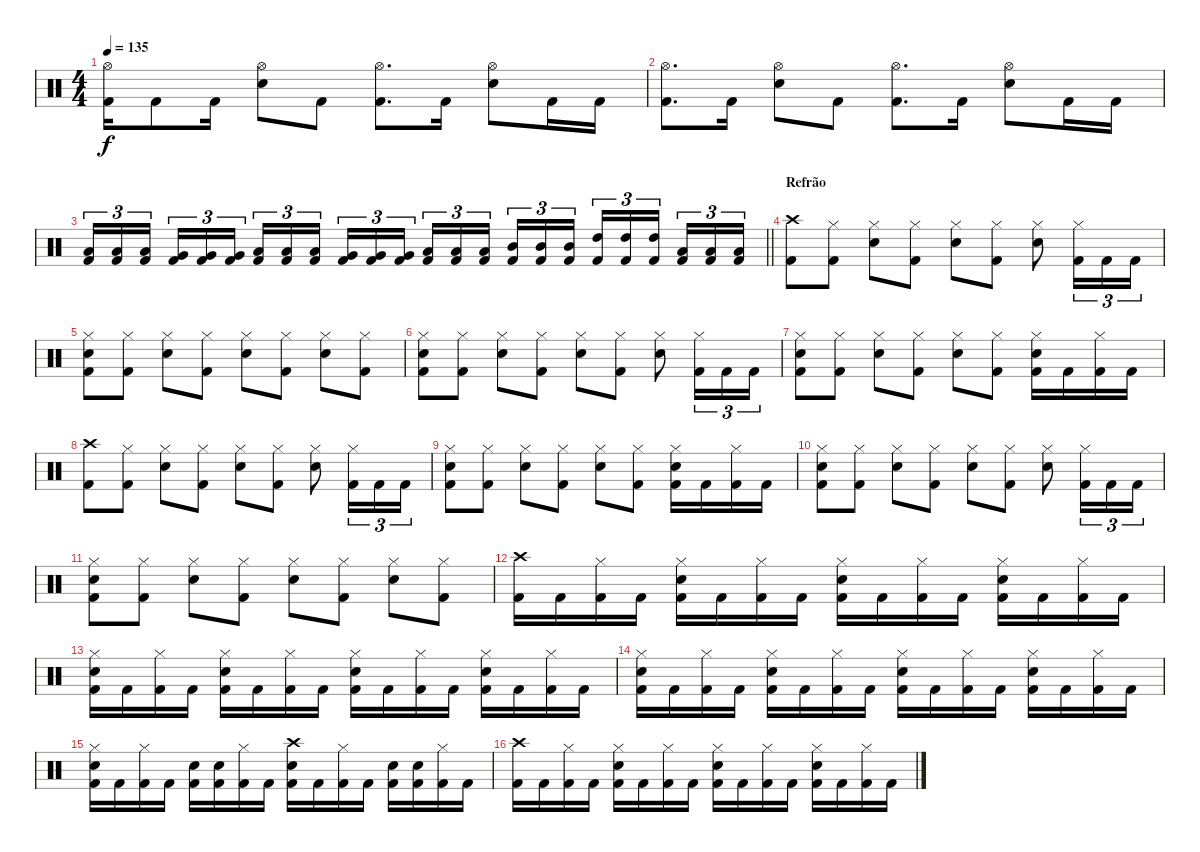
\track "" {instrument percussion}
\staff {score}
\articulation defaults
\ts (4 4)
\tempo 135
\clef neutral
\ks c
("Hi-Hat (open)" "Kick (hit) 2").16{dy f} "Kick (hit) 2".8 "Kick (hit) 2".16 ("Hi-Hat (open)" "Electric Snare (hit)").8 "Kick (hit) 2".8 ("Hi-Hat (open)" "Kick (hit) 2").8{d} "Kick (hit) 2".16 ("Hi-Hat (open)" "Electric Snare (hit)").8 "Kick (hit) 2".16 "Kick (hit) 2".16 |
("Hi-Hat (open)" "Kick (hit) 2").8{d} "Kick (hit) 2".16 ("Hi-Hat (open)" "Electric Snare (hit)").8 "Kick (hit) 2".8 ("Hi-Hat (open)" "Kick (hit) 2").8{d} "Kick (hit) 2".16 ("Hi-Hat (open)" "Electric Snare (hit)").8 "Kick (hit) 2".16 "Kick (hit) 2".16 |
\barLineRight lightlight
("Low Tom (hit)" "Kick (hit) 2").16{tu (3 2)} ("Low Tom (hit)" "Kick (hit) 2").16{tu (3 2)} ("Low Tom (hit)" "Kick (hit) 2").16{tu (3 2)} ("Very Low Tom (hit)" "Kick (hit) 2").16{tu (3 2)} ("Very Low Tom (hit)" "Kick (hit) 2").16{tu (3 2)} ("Very Low Tom (hit)" "Kick (hit) 2").16{tu (3 2)} ("Low Floor Tom (hit)" "Kick (hit) 2").16{tu (3 2)} ("Low Floor Tom (hit)" "Kick (hit) 2").16{tu (3 2)} ("Low Floor Tom (hit)" "Kick (hit) 2").16{tu (3 2)} ("Very Low Tom (hit)" "Kick (hit) 2").16{tu (3 2)} ("Very Low Tom (hit)" "Kick (hit) 2").16{tu (3 2)} ("Very Low Tom (hit)" "Kick (hit) 2").16{tu (3 2)} ("Low Tom (hit)" "Kick (hit) 2").16{tu (3 2)} ("Low Tom (hit)" "Kick (hit) 2").16{tu (3 2)} ("Low Tom (hit)" "Kick (hit) 2").16{tu (3 2)} ("Mid Tom (hit)" "Kick (hit) 2").16{tu (3 2)} ("Mid Tom (hit)" "Kick (hit) 2").16{tu (3 2)} ("Mid Tom (hit)" "Kick (hit) 2").16{tu (3 2)} ("High Tom (hit)" "Kick (hit) 2").16{tu (3 2)} ("High Tom (hit)" "Kick (hit) 2").16{tu (3 2)} ("High Tom (hit)" "Kick (hit) 2").16{tu (3 2)} ("Low Tom (hit)" "Kick (hit) 2").16{tu (3 2)} ("Low Tom (hit)" "Kick (hit) 2").16{tu (3 2)} ("Low Tom (hit)" "Kick (hit) 2").16{tu (3 2)} |
\section ("" "Refrão")
("Crash high (hit)" "Kick (hit) 2").8 ("Hi-Hat (closed)" "Kick (hit) 2").8 ("Hi-Hat (closed)" "Electric Snare (hit)").8 ("Hi-Hat (closed)" "Kick (hit) 2").8 ("Hi-Hat (closed)" "Electric Snare (hit)").8 ("Hi-Hat (closed)" "Kick (hit) 2").8 ("Hi-Hat (closed)" "Electric Snare (hit)").8 ("Hi-Hat (closed)" "Kick (hit) 2").16{tu (3 2)} "Kick (hit) 2".16{tu (3 2)} "Kick (hit) 2".16{tu (3 2)} |
("Hi-Hat (closed)" "Electric Snare (hit)" "Kick (hit) 2").8 ("Hi-Hat (closed)" "Kick (hit) 2").8 ("Hi-Hat (closed)" "Electric Snare (hit)").8 ("Hi-Hat (closed)" "Kick (hit) 2").8 ("Hi-Hat (closed)" "Electric Snare (hit)").8 ("Hi-Hat (closed)" "Kick (hit) 2").8 ("Hi-Hat (closed)" "Electric Snare (hit)").8 ("Hi-Hat (closed)" "Kick (hit) 2").8 |
("Hi-Hat (closed)" "Electric Snare (hit)" "Kick (hit) 2").8 ("Hi-Hat (closed)" "Kick (hit) 2").8 ("Hi-Hat (closed)" "Electric Snare (hit)").8 ("Hi-Hat (closed)" "Kick (hit) 2").8 ("Hi-Hat (closed)" "Electric Snare (hit)").8 ("Hi-Hat (closed)" "Kick (hit) 2").8 ("Hi-Hat (closed)" "Electric Snare (hit)").8 ("Hi-Hat (closed)" "Kick (hit) 2").16{tu (3 2)} "Kick (hit) 2".16{tu (3 2)} "Kick (hit) 2".16{tu (3 2)} |
("Hi-Hat (closed)" "Electric Snare (hit)" "Kick (hit) 2").8 ("Hi-Hat (closed)" "Kick (hit) 2").8 ("Hi-Hat (closed)" "Electric Snare (hit)").8 ("Hi-Hat (closed)" "Kick (hit) 2").8 ("Hi-Hat (closed)" "Electric Snare (hit)").8 ("Hi-Hat (closed)" "Kick (hit) 2").8 ("Hi-Hat (closed)" "Electric Snare (hit)" "Kick (hit) 2").16 "Kick (hit) 2".16 ("Hi-Hat (closed)" "Kick (hit) 2").16 "Kick (hit) 2".16 |
("Crash high (hit)" "Kick (hit) 2").8 ("Hi-Hat (closed)" "Kick (hit) 2").8 ("Hi-Hat (closed)" "Electric Snare (hit)").8 ("Hi-Hat (closed)" "Kick (hit) 2").8 ("Hi-Hat (closed)" "Electric Snare (hit)").8 ("Hi-Hat (closed)" "Kick (hit) 2").8 ("Hi-Hat (closed)" "Electric Snare (hit)").8 ("Hi-Hat (closed)" "Kick (hit) 2").16{tu (3 2)} "Kick (hit) 2".16{tu (3 2)} "Kick (hit) 2".16{tu (3 2)} |
("Hi-Hat (closed)" "Electric Snare (hit)" "Kick (hit) 2").8 ("Hi-Hat (closed)" "Kick (hit) 2").8 ("Hi-Hat (closed)" "Electric Snare (hit)").8 ("Hi-Hat (closed)" "Kick (hit) 2").8 ("Hi-Hat (closed)" "Electric Snare (hit)").8 ("Hi-Hat (closed)" "Kick (hit) 2").8 ("Hi-Hat (closed)" "Electric Snare (hit)" "Kick (hit) 2").16 "Kick (hit) 2".16 ("Hi-Hat (closed)" "Kick (hit) 2").16 "Kick (hit) 2".16 |
("Hi-Hat (closed)" "Electric Snare (hit)" "Kick (hit) 2").8 ("Hi-Hat (closed)" "Kick (hit) 2").8 ("Hi-Hat (closed)" "Electric Snare (hit)").8 ("Hi-Hat (closed)" "Kick (hit) 2").8 ("Hi-Hat (closed)" "Electric Snare (hit)").8 ("Hi-Hat (closed)" "Kick (hit) 2").8 ("Hi-Hat (closed)" "Electric Snare (hit)").8 ("Hi-Hat (closed)" "Kick (hit) 2").16{tu (3 2)} "Kick (hit) 2".16{tu (3 2)} "Kick (hit) 2".16{tu (3 2)} |
("Hi-Hat (closed)" "Electric Snare (hit)" "Kick (hit) 2").8 ("Hi-Hat (closed)" "Kick (hit) 2").8 ("Hi-Hat (closed)" "Electric Snare (hit)").8 ("Hi-Hat (closed)" "Kick (hit) 2").8 ("Hi-Hat (closed)" "Electric Snare (hit)").8 ("Hi-Hat (closed)" "Kick (hit) 2").8 ("Hi-Hat (closed)" "Electric Snare (hit)").8 ("Hi-Hat (closed)" "Kick (hit) 2").8 |
("Crash high (hit)" "Kick (hit) 2").16 "Kick (hit) 2".16 ("Hi-Hat (closed)" "Kick (hit) 2").16 "Kick (hit) 2".16 ("Hi-Hat (closed)" "Electric Snare (hit)" "Kick (hit) 2").16 "Kick (hit) 2".16 ("Hi-Hat (closed)" "Kick (hit) 2").16 "Kick (hit) 2".16 ("Hi-Hat (closed)" "Electric Snare (hit)" "Kick (hit) 2").16 "Kick (hit) 2".16 ("Hi-Hat (closed)" "Kick (hit) 2").16 "Kick (hit) 2".16 ("Hi-Hat (closed)" "Electric Snare (hit)" "Kick (hit) 2").16 "Kick (hit) 2".16 ("Hi-Hat (closed)" "Kick (hit) 2").16 "Kick (hit) 2".16 |
("Hi-Hat (closed)" "Electric Snare (hit)" "Kick (hit) 2").16 "Kick (hit) 2".16 ("Hi-Hat (closed)" "Kick (hit) 2").16 "Kick (hit) 2".16 ("Hi-Hat (closed)" "Electric Snare (hit)" "Kick (hit) 2").16 "Kick (hit) 2".16 ("Hi-Hat (closed)" "Kick (hit) 2").16 "Kick (hit) 2".16 ("Hi-Hat (closed)" "Electric Snare (hit)" "Kick (hit) 2").16 "Kick (hit) 2".16 ("Hi-Hat (closed)" "Kick (hit) 2").16 "Kick (hit) 2".16 ("Hi-Hat (closed)" "Electric Snare (hit)" "Kick (hit) 2").16 "Kick (hit) 2".16 ("Hi-Hat (closed)" "Kick (hit) 2").16 "Kick (hit) 2".16 |
("Hi-Hat (closed)" "Electric Snare (hit)" "Kick (hit) 2").16 "Kick (hit) 2".16 ("Hi-Hat (closed)" "Kick (hit) 2").16 "Kick (hit) 2".16 ("Hi-Hat (closed)" "Electric Snare (hit)" "Kick (hit) 2").16 "Kick (hit) 2".16 ("Hi-Hat (closed)" "Kick (hit) 2").16 "Kick (hit) 2".16 ("Hi-Hat (closed)" "Electric Snare (hit)" "Kick (hit) 2").16 "Kick (hit) 2".16 ("Hi-Hat (closed)" "Kick (hit) 2").16 "Kick (hit) 2".16 ("Hi-Hat (closed)" "Electric Snare (hit)" "Kick (hit) 2").16 "Kick (hit) 2".16 ("Hi-Hat (closed)" "Kick (hit) 2").16 "Kick (hit) 2".16 |
("Hi-Hat (closed)" "Electric Snare (hit)" "Kick (hit) 2").16 "Kick (hit) 2".16 ("Hi-Hat (closed)" "Kick (hit) 2").16 "Kick (hit) 2".16 ("Electric Snare (hit)" "Kick (hit) 2").16 ("Electric Snare (hit)" "Kick (hit) 2").16 ("Hi-Hat (closed)" "Kick (hit) 2").16 "Kick (hit) 2".16 ("Crash high (hit)" "Electric Snare (hit)" "Kick (hit) 2").16 "Kick (hit) 2".16 ("Hi-Hat (closed)" "Kick (hit) 2").16 "Kick (hit) 2".16 ("Electric Snare (hit)" "Kick (hit) 2").16 ("Electric Snare (hit)" "Kick (hit) 2").16 ("Hi-Hat (closed)" "Kick (hit) 2").16 "Kick (hit) 2".16 |
("Crash high (hit)" "Kick (hit) 2").16 "Kick (hit) 2".16 ("Hi-Hat (closed)" "Kick (hit) 2").16 "Kick (hit) 2".16 ("Hi-Hat (closed)" "Electric Snare (hit)" "Kick (hit) 2").16 "Kick (hit) 2".16 ("Hi-Hat (closed)" "Kick (hit) 2").16 "Kick (hit) 2".16 ("Hi-Hat (closed)" "Electric Snare (hit)" "Kick (hit) 2").16 "Kick (hit) 2".16 ("Hi-Hat (closed)" "Kick (hit) 2").16 "Kick (hit) 2".16 ("Hi-Hat (closed)" "Electric Snare (hit)" "Kick (hit) 2").16 "Kick (hit) 2".16 ("Hi-Hat (closed)" "Kick (hit) 2").16 "Kick (hit) 2".16
